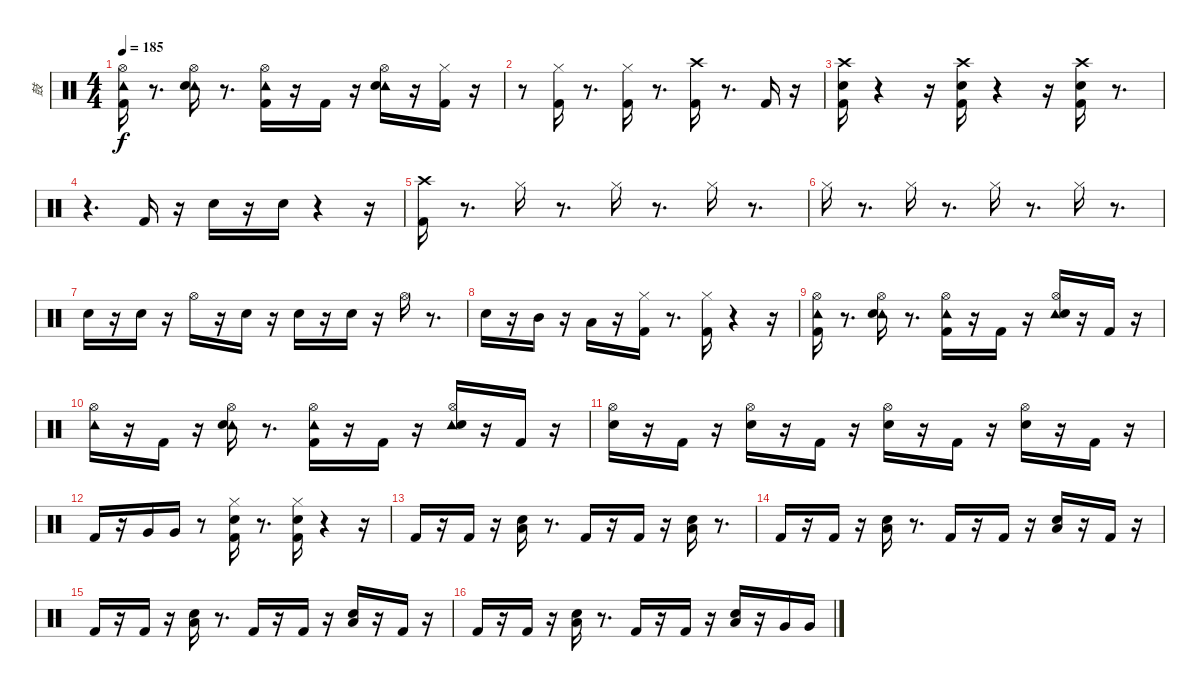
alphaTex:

\track ("鼓" "鼓") {instrument percussion}
\staff {score}
\articulation defaults
\ts (4 4)
\tempo 185
\clef neutral
\ks c
("Tambourine (hit)" "Kick (hit) 2" "Hi-Hat (open)").16{dy f} r.8{d} ("Tambourine (hit)" "Snare (hit) 2" "Hi-Hat (open)").16 r.8{d} ("Tambourine (hit)" "Kick (hit) 2" "Hi-Hat (open)").16 r.16 "Kick (hit) 2".16 r.16 ("Tambourine (hit)" "Snare (hit) 2" "Hi-Hat (open)").16 r.16 ("Hi-Hat (closed)" "Kick (hit) 2").16 r.16 |
r.8 ("Hi-Hat (closed)" "Kick (hit) 2").16 r.8{d} ("Kick (hit) 2" "Hi-Hat (closed)").16 r.8{d} ("Crash high (hit)" "Kick (hit) 2").16 r.8{d} "Kick (hit) 2".16 r.16 |
("Snare (hit) 2" "Kick (hit) 2" "Crash high (hit)").16 r.4 r.16 ("Snare (hit) 2" "Kick (hit) 2" "Crash high (hit)").16 r.4 r.16 ("Snare (hit) 2" "Kick (hit) 2" "Crash high (hit)").16 r.8{d} |
r.4{d} "Kick (hit) 2".16 r.16 "Snare (hit) 2".16 r.16 "Snare (hit) 2".16 r.4 r.16 |
("Crash high (hit)" "Kick (hit) 2").16 r.8{d} "Hi-Hat (closed)".16 r.8{d} "Hi-Hat (closed)".16 r.8{d} "Hi-Hat (closed)".16 r.8{d} |
"Hi-Hat (closed)".16 r.8{d} "Hi-Hat (closed)".16 r.8{d} "Hi-Hat (closed)".16 r.8{d} "Hi-Hat (closed)".16 r.8{d} |
"Electric Snare (hit)".16 r.16 "Snare (hit) 2".16 r.16 "Hi-Hat (open)".16 r.16 "Snare (hit) 2".16 r.16 "Electric Snare (hit)".16 r.16 "Snare (hit) 2".16 r.16 "Hi-Hat (open)".16 r.8{d} |
"Electric Snare (hit)".16 r.16 "Mid Tom (hit)".16 r.16 "Low Tom (hit)".16 r.16 ("Kick (hit) 2" "Hi-Hat (closed)").16 r.8{d} ("Kick (hit) 2" "Hi-Hat (closed)").16 r.4 r.16 |
("Tambourine (hit)" "Kick (hit) 2" "Hi-Hat (open)").16 r.8{d} ("Tambourine (hit)" "Snare (hit) 2" "Hi-Hat (open)").16 r.8{d} ("Tambourine (hit)" "Kick (hit) 2" "Hi-Hat (open)").16 r.16 "Kick (hit) 2".16 r.16 ("Tambourine (hit)" "Snare (hit) 2" "Hi-Hat (open)").16 r.16 "Kick (hit) 2".16 r.16 |
("Tambourine (hit)" "Hi-Hat (open)").16 r.16 "Kick (hit) 2".16 r.16 ("Tambourine (hit)" "Hi-Hat (open)" "Snare (hit) 2").16 r.8{d} ("Tambourine (hit)" "Hi-Hat (open)" "Kick (hit) 2").16 r.16 "Kick (hit) 2".16 r.16 ("Tambourine (hit)" "Hi-Hat (open)" "Snare (hit) 2").16 r.16 "Kick (hit) 2".16 r.16 |
("Hi-Hat (open)" "Snare (hit) 2").16 r.16 "Kick (hit) 2".16 r.16 ("Hi-Hat (open)" "Snare (hit) 2").16 r.16 "Kick (hit) 2".16 r.16 ("Hi-Hat (open)" "Snare (hit) 2").16 r.16 "Kick (hit) 2".16 r.16 ("Hi-Hat (open)" "Snare (hit) 2").16 r.16 "Kick (hit) 2".16 r.16 |
"Kick (hit) 2".16 r.16 "Very Low Tom (hit)".16 "Very Low Tom (hit)".16 r.8 ("Kick (hit) 2" "Snare (hit) 2" "Hi-Hat (closed)").16 r.8{d} ("Kick (hit) 2" "Snare (hit) 2" "Hi-Hat (closed)").16 r.4 r.16 |
"Kick (hit) 2".16 r.16 "Kick (hit) 2".16 r.16 ("Low Floor Tom (hit)" "Snare (hit) 2").16 r.8{d} "Kick (hit) 2".16 r.16 "Kick (hit) 2".16 r.16 ("Low Floor Tom (hit)" "Snare (hit) 2").16 r.8{d} |
"Kick (hit) 2".16 r.16 "Kick (hit) 2".16 r.16 ("Low Floor Tom (hit)" "Snare (hit) 2").16 r.8{d} "Kick (hit) 2".16 r.16 "Kick (hit) 2".16 r.16 ("Low Floor Tom (hit)" "Snare (hit) 2").16 r.16 "Kick (hit) 2".16 r.16 |
"Kick (hit) 2".16 r.16 "Kick (hit) 2".16 r.16 ("Low Floor Tom (hit)" "Snare (hit) 2").16 r.8{d} "Kick (hit) 2".16 r.16 "Kick (hit) 2".16 r.16 ("Low Floor Tom (hit)" "Snare (hit) 2").16 r.16 "Kick (hit) 2".16 r.16 |
"Kick (hit) 2".16 r.16 "Kick (hit) 2".16 r.16 ("Low Floor Tom (hit)" "Snare (hit) 2").16 r.8{d} "Kick (hit) 2".16 r.16 "Kick (hit) 2".16 r.16 ("Low Floor Tom (hit)" "Snare (hit) 2").16 r.16 "Very Low Tom (hit)".16 "Very Low Tom (hit)".16
